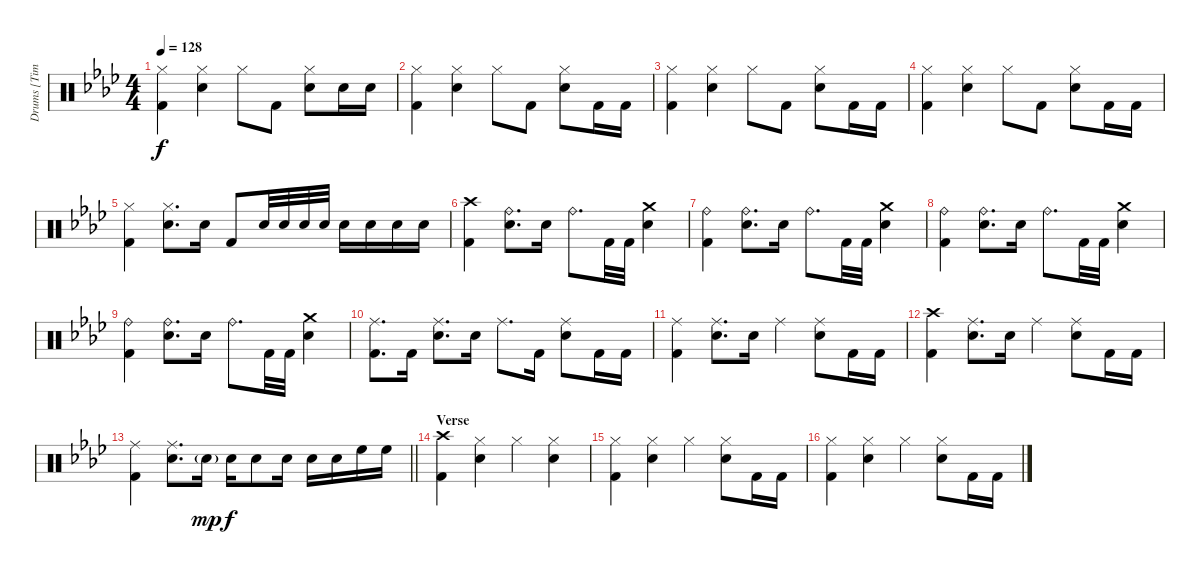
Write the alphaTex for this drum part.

\track ("Drums [Tim Alexander]" "Drums [Tim") {instrument percussion}
\staff {score}
\articulation defaults
\ts (4 4)
\tempo 128
\clef neutral
\ks ab
("Hi-Hat (closed)" "Kick (hit) 2").4{dy f} ("Hi-Hat (closed)" "Electric Snare (hit)").4 "Hi-Hat (closed)".8 "Kick (hit) 2".8 ("Hi-Hat (closed)" "Electric Snare (hit)").8 "Electric Snare (hit)".16 "Electric Snare (hit)".16 |
("Hi-Hat (closed)" "Kick (hit) 2").4 ("Hi-Hat (closed)" "Electric Snare (hit)").4 "Hi-Hat (closed)".8 "Kick (hit) 2".8 ("Hi-Hat (closed)" "Electric Snare (hit)").8 "Kick (hit) 2".16 "Kick (hit) 2".16 |
("Hi-Hat (closed)" "Kick (hit) 2").4 ("Hi-Hat (closed)" "Electric Snare (hit)").4 "Hi-Hat (closed)".8 "Kick (hit) 2".8 ("Hi-Hat (closed)" "Electric Snare (hit)").8 "Kick (hit) 2".16 "Kick (hit) 2".16 |
("Hi-Hat (closed)" "Kick (hit) 2").4 ("Hi-Hat (closed)" "Electric Snare (hit)").4 "Hi-Hat (closed)".8 "Kick (hit) 2".8 ("Hi-Hat (closed)" "Electric Snare (hit)").8 "Kick (hit) 2".16 "Kick (hit) 2".16 |
("Hi-Hat (closed)" "Kick (hit) 2").4 ("Hi-Hat (closed)" "Electric Snare (hit)").8{d} "Electric Snare (hit)".16 "Kick (hit) 2".8 "Electric Snare (hit)".32 "Electric Snare (hit)".32 "Electric Snare (hit)".32 "Electric Snare (hit)".32 "Electric Snare (hit)".16 "Electric Snare (hit)".16 "Electric Snare (hit)".16 "Electric Snare (hit)".16 |
("Crash high (hit)" "Kick (hit) 2").4 ("Ride (bell)" "Electric Snare (hit)").8{d} "Electric Snare (hit)".16 "Ride (bell)".8{d} "Kick (hit) 2".32 "Kick (hit) 2".32 ("Crash medium (hit)" "Electric Snare (hit)").4 |
("Ride (bell)" "Kick (hit) 2").4 ("Ride (bell)" "Electric Snare (hit)").8{d} "Electric Snare (hit)".16 "Ride (bell)".8{d} "Kick (hit) 2".32 "Kick (hit) 2".32 ("Crash medium (hit)" "Electric Snare (hit)").4 |
("Ride (bell)" "Kick (hit) 2").4 ("Ride (bell)" "Electric Snare (hit)").8{d} "Electric Snare (hit)".16 "Ride (bell)".8{d} "Kick (hit) 2".32 "Kick (hit) 2".32 ("Crash medium (hit)" "Electric Snare (hit)").4 |
("Ride (bell)" "Kick (hit) 2").4 ("Ride (bell)" "Electric Snare (hit)").8{d} "Electric Snare (hit)".16 "Ride (bell)".8{d} "Kick (hit) 2".32 "Kick (hit) 2".32 ("Crash medium (hit)" "Electric Snare (hit)").4 |
("Ride (middle)" "Kick (hit) 2").8{d} "Kick (hit) 2".16 ("Ride (middle)" "Electric Snare (hit)").8{d} "Electric Snare (hit)".16 "Ride (middle)".8{d} "Kick (hit) 2".16 ("Ride (middle)" "Electric Snare (hit)").8 "Kick (hit) 2".16 "Kick (hit) 2".16 |
("Ride (middle)" "Kick (hit) 2").4 ("Ride (middle)" "Electric Snare (hit)").8{d} "Electric Snare (hit)".16 "Ride (middle)".4 ("Ride (middle)" "Electric Snare (hit)").8 "Kick (hit) 2".16 "Kick (hit) 2".16 |
("Crash high (hit)" "Kick (hit) 2").4 ("Ride (middle)" "Electric Snare (hit)").8{d} "Electric Snare (hit)".16 "Ride (middle)".4 ("Ride (middle)" "Electric Snare (hit)").8 "Kick (hit) 2".16 "Kick (hit) 2".16 |
\barLineRight lightlight
("Ride (middle)" "Kick (hit) 2").4 ("Ride (middle)" "Electric Snare (hit)").8{d} "Electric Snare (hit)"{g}.16{dy mp} "Electric Snare (hit)".16{dy f} "Electric Snare (hit)".8 "Electric Snare (hit)".16 "Electric Snare (hit)".16 "Electric Snare (hit)".16 "High Floor Tom (hit)".16 "High Floor Tom (hit)".16 |
\section ("" "Verse")
("Crash high (hit)" "Kick (hit) 2").4 ("Hi-Hat (closed)" "Electric Snare (hit)").4 "Hi-Hat (closed)".4 ("Hi-Hat (closed)" "Electric Snare (hit)").4 |
("Hi-Hat (closed)" "Kick (hit) 2").4 ("Hi-Hat (closed)" "Electric Snare (hit)").4 "Hi-Hat (closed)".4 ("Hi-Hat (closed)" "Electric Snare (hit)").8 "Kick (hit) 2".16 "Kick (hit) 2".16 |
("Hi-Hat (closed)" "Kick (hit) 2").4 ("Hi-Hat (closed)" "Electric Snare (hit)").4 "Hi-Hat (closed)".4 ("Hi-Hat (closed)" "Electric Snare (hit)").8 "Kick (hit) 2".16 "Kick (hit) 2".16
